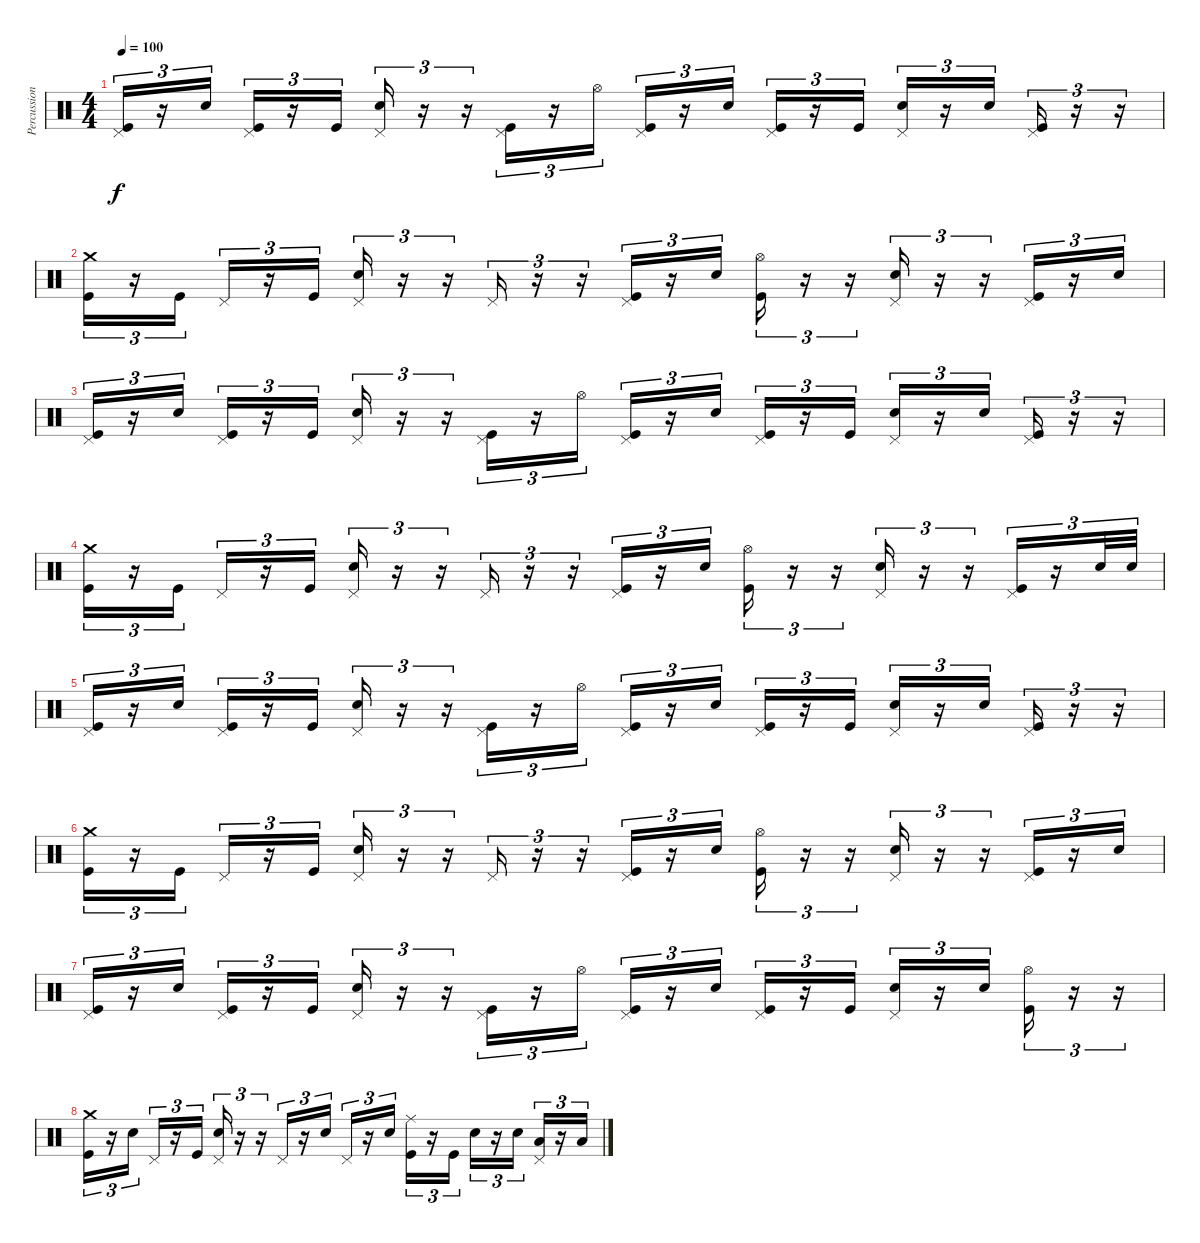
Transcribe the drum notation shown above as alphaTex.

\track ("Percussion" "Percussion") {instrument percussion}
\staff {score}
\articulation defaults
\ts (4 4)
\tempo 100
\clef neutral
\ks c
("Pedal Hi-Hat (hit)" "Kick (hit)").16{tu (3 2) dy f} r.16{tu (3 2)} "Electric Snare (hit)".16{tu (3 2)} ("Pedal Hi-Hat (hit)" "Kick (hit)").16{tu (3 2)} r.16{tu (3 2)} "Kick (hit)".16{tu (3 2)} ("Pedal Hi-Hat (hit)" "Electric Snare (hit)").16{tu (3 2)} r.16{tu (3 2)} r.16{tu (3 2)} ("Pedal Hi-Hat (hit)" "Kick (hit)").16{tu (3 2)} r.16{tu (3 2)} "Hi-Hat (open)".16{tu (3 2)} ("Pedal Hi-Hat (hit)" "Kick (hit)").16{tu (3 2)} r.16{tu (3 2)} "Electric Snare (hit)".16{tu (3 2)} ("Pedal Hi-Hat (hit)" "Kick (hit)").16{tu (3 2)} r.16{tu (3 2)} "Kick (hit)".16{tu (3 2)} ("Pedal Hi-Hat (hit)" "Electric Snare (hit)").16{tu (3 2)} r.16{tu (3 2)} "Electric Snare (hit)".16{tu (3 2)} ("Pedal Hi-Hat (hit)" "Kick (hit)").16{tu (3 2)} r.16{tu (3 2)} r.16{tu (3 2)} |
("Crash medium (hit)" "Kick (hit)").16{tu (3 2)} r.16{tu (3 2)} "Kick (hit)".16{tu (3 2)} "Pedal Hi-Hat (hit)".16{tu (3 2)} r.16{tu (3 2)} "Kick (hit)".16{tu (3 2)} ("Pedal Hi-Hat (hit)" "Electric Snare (hit)").16{tu (3 2)} r.16{tu (3 2)} r.16{tu (3 2)} "Pedal Hi-Hat (hit)".16{tu (3 2)} r.16{tu (3 2)} r.16{tu (3 2)} ("Pedal Hi-Hat (hit)" "Kick (hit)").16{tu (3 2)} r.16{tu (3 2)} "Electric Snare (hit)".16{tu (3 2)} ("Hi-Hat (open)" "Kick (hit)").16{tu (3 2)} r.16{tu (3 2)} r.16{tu (3 2)} ("Pedal Hi-Hat (hit)" "Electric Snare (hit)").16{tu (3 2)} r.16{tu (3 2)} r.16{tu (3 2)} ("Pedal Hi-Hat (hit)" "Kick (hit)").16{tu (3 2)} r.16{tu (3 2)} "Electric Snare (hit)".16{tu (3 2)} |
("Pedal Hi-Hat (hit)" "Kick (hit)").16{tu (3 2)} r.16{tu (3 2)} "Electric Snare (hit)".16{tu (3 2)} ("Pedal Hi-Hat (hit)" "Kick (hit)").16{tu (3 2)} r.16{tu (3 2)} "Kick (hit)".16{tu (3 2)} ("Pedal Hi-Hat (hit)" "Electric Snare (hit)").16{tu (3 2)} r.16{tu (3 2)} r.16{tu (3 2)} ("Pedal Hi-Hat (hit)" "Kick (hit)").16{tu (3 2)} r.16{tu (3 2)} "Hi-Hat (open)".16{tu (3 2)} ("Pedal Hi-Hat (hit)" "Kick (hit)").16{tu (3 2)} r.16{tu (3 2)} "Electric Snare (hit)".16{tu (3 2)} ("Pedal Hi-Hat (hit)" "Kick (hit)").16{tu (3 2)} r.16{tu (3 2)} "Kick (hit)".16{tu (3 2)} ("Pedal Hi-Hat (hit)" "Electric Snare (hit)").16{tu (3 2)} r.16{tu (3 2)} "Electric Snare (hit)".16{tu (3 2)} ("Pedal Hi-Hat (hit)" "Kick (hit)").16{tu (3 2)} r.16{tu (3 2)} r.16{tu (3 2)} |
("Crash medium (hit)" "Kick (hit)").16{tu (3 2)} r.16{tu (3 2)} "Kick (hit)".16{tu (3 2)} "Pedal Hi-Hat (hit)".16{tu (3 2)} r.16{tu (3 2)} "Kick (hit)".16{tu (3 2)} ("Pedal Hi-Hat (hit)" "Electric Snare (hit)").16{tu (3 2)} r.16{tu (3 2)} r.16{tu (3 2)} "Pedal Hi-Hat (hit)".16{tu (3 2)} r.16{tu (3 2)} r.16{tu (3 2)} ("Pedal Hi-Hat (hit)" "Kick (hit)").16{tu (3 2)} r.16{tu (3 2)} "Electric Snare (hit)".16{tu (3 2)} ("Hi-Hat (open)" "Kick (hit)").16{tu (3 2)} r.16{tu (3 2)} r.16{tu (3 2)} ("Pedal Hi-Hat (hit)" "Electric Snare (hit)").16{tu (3 2)} r.16{tu (3 2)} r.16{tu (3 2)} ("Pedal Hi-Hat (hit)" "Kick (hit)").16{tu (3 2)} r.16{tu (3 2)} "Electric Snare (hit)".32{tu (3 2)} "Electric Snare (hit)".32{tu (3 2)} |
("Pedal Hi-Hat (hit)" "Kick (hit)").16{tu (3 2)} r.16{tu (3 2)} "Electric Snare (hit)".16{tu (3 2)} ("Pedal Hi-Hat (hit)" "Kick (hit)").16{tu (3 2)} r.16{tu (3 2)} "Kick (hit)".16{tu (3 2)} ("Pedal Hi-Hat (hit)" "Electric Snare (hit)").16{tu (3 2)} r.16{tu (3 2)} r.16{tu (3 2)} ("Pedal Hi-Hat (hit)" "Kick (hit)").16{tu (3 2)} r.16{tu (3 2)} "Hi-Hat (open)".16{tu (3 2)} ("Pedal Hi-Hat (hit)" "Kick (hit)").16{tu (3 2)} r.16{tu (3 2)} "Electric Snare (hit)".16{tu (3 2)} ("Pedal Hi-Hat (hit)" "Kick (hit)").16{tu (3 2)} r.16{tu (3 2)} "Kick (hit)".16{tu (3 2)} ("Pedal Hi-Hat (hit)" "Electric Snare (hit)").16{tu (3 2)} r.16{tu (3 2)} "Electric Snare (hit)".16{tu (3 2)} ("Pedal Hi-Hat (hit)" "Kick (hit)").16{tu (3 2)} r.16{tu (3 2)} r.16{tu (3 2)} |
("Crash medium (hit)" "Kick (hit)").16{tu (3 2)} r.16{tu (3 2)} "Kick (hit)".16{tu (3 2)} "Pedal Hi-Hat (hit)".16{tu (3 2)} r.16{tu (3 2)} "Kick (hit)".16{tu (3 2)} ("Pedal Hi-Hat (hit)" "Electric Snare (hit)").16{tu (3 2)} r.16{tu (3 2)} r.16{tu (3 2)} "Pedal Hi-Hat (hit)".16{tu (3 2)} r.16{tu (3 2)} r.16{tu (3 2)} ("Pedal Hi-Hat (hit)" "Kick (hit)").16{tu (3 2)} r.16{tu (3 2)} "Electric Snare (hit)".16{tu (3 2)} ("Hi-Hat (open)" "Kick (hit)").16{tu (3 2)} r.16{tu (3 2)} r.16{tu (3 2)} ("Pedal Hi-Hat (hit)" "Electric Snare (hit)").16{tu (3 2)} r.16{tu (3 2)} r.16{tu (3 2)} ("Pedal Hi-Hat (hit)" "Kick (hit)").16{tu (3 2)} r.16{tu (3 2)} "Electric Snare (hit)".16{tu (3 2)} |
("Pedal Hi-Hat (hit)" "Kick (hit)").16{tu (3 2)} r.16{tu (3 2)} "Electric Snare (hit)".16{tu (3 2)} ("Pedal Hi-Hat (hit)" "Kick (hit)").16{tu (3 2)} r.16{tu (3 2)} "Kick (hit)".16{tu (3 2)} ("Pedal Hi-Hat (hit)" "Electric Snare (hit)").16{tu (3 2)} r.16{tu (3 2)} r.16{tu (3 2)} ("Pedal Hi-Hat (hit)" "Kick (hit)").16{tu (3 2)} r.16{tu (3 2)} "Hi-Hat (open)".16{tu (3 2)} ("Pedal Hi-Hat (hit)" "Kick (hit)").16{tu (3 2)} r.16{tu (3 2)} "Electric Snare (hit)".16{tu (3 2)} ("Pedal Hi-Hat (hit)" "Kick (hit)").16{tu (3 2)} r.16{tu (3 2)} "Kick (hit)".16{tu (3 2)} ("Pedal Hi-Hat (hit)" "Electric Snare (hit)").16{tu (3 2)} r.16{tu (3 2)} "Electric Snare (hit)".16{tu (3 2)} ("Hi-Hat (open)" "Kick (hit)").16{tu (3 2)} r.16{tu (3 2)} r.16{tu (3 2)} |
("Crash medium (hit)" "Kick (hit)").16{tu (3 2)} r.16{tu (3 2)} "Electric Snare (hit)".16{tu (3 2)} "Pedal Hi-Hat (hit)".16{tu (3 2)} r.16{tu (3 2)} "Kick (hit)".16{tu (3 2)} ("Pedal Hi-Hat (hit)" "Electric Snare (hit)").16{tu (3 2)} r.16{tu (3 2)} r.16{tu (3 2)} "Pedal Hi-Hat (hit)".16{tu (3 2)} r.16{tu (3 2)} "Electric Snare (hit)".16{tu (3 2)} "Pedal Hi-Hat (hit)".16{tu (3 2)} r.16{tu (3 2)} "Electric Snare (hit)".16{tu (3 2)} ("Ride (middle)" "Kick (hit)").16{tu (3 2)} r.16{tu (3 2)} "Kick (hit)".16{tu (3 2)} "Electric Snare (hit)".16{tu (3 2)} r.16{tu (3 2)} "Electric Snare (hit)".16{tu (3 2)} ("Pedal Hi-Hat (hit)" "Low Floor Tom (hit)").16{tu (3 2)} r.16{tu (3 2)} "Low Floor Tom (hit)".16{tu (3 2)}
